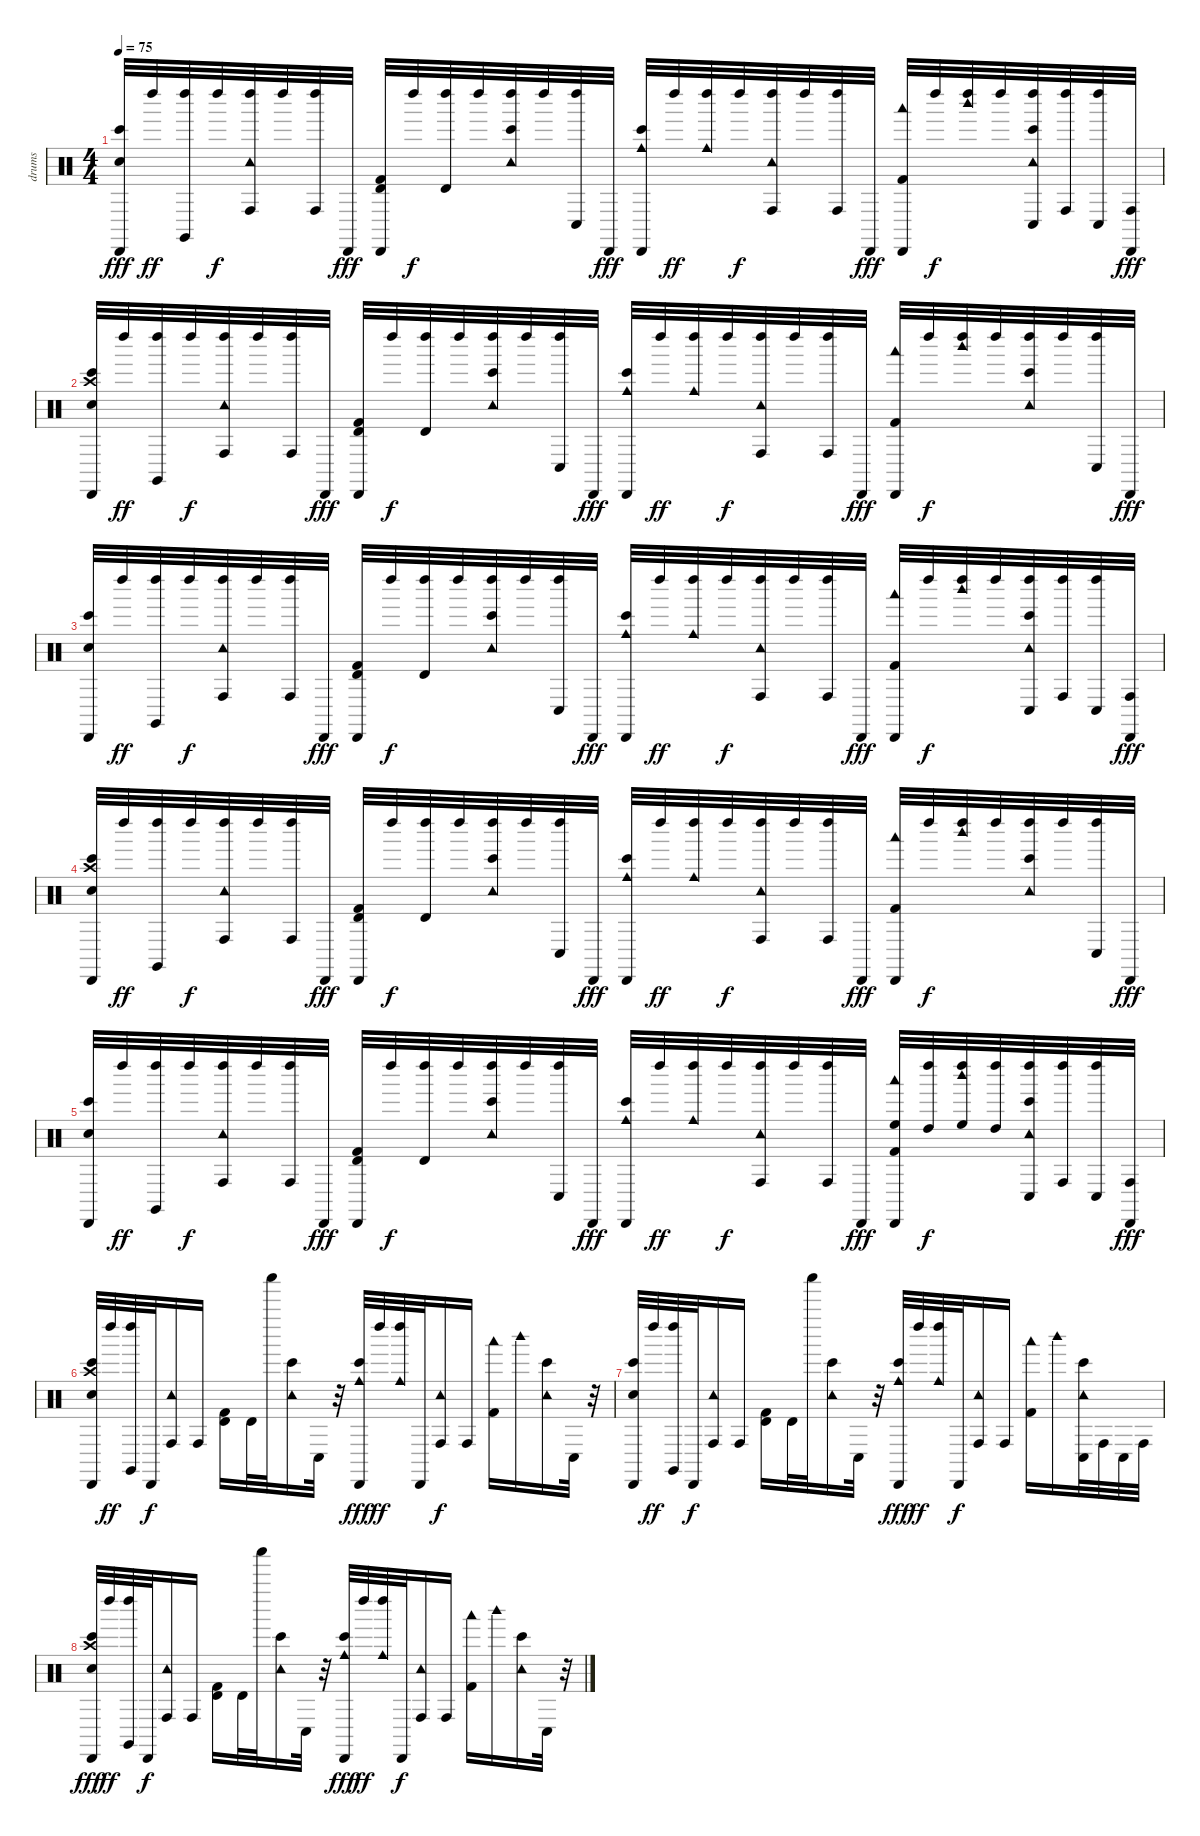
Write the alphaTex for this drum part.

\track ("drums" "drums") {instrument percussion}
\staff {score}
\articulation defaults
\ts (4 4)
\tempo 75
\clef neutral
\ks c
("Snare (hit) 2" "Bongo High (hit)" "Cabasa (hit)").32{dy fff} "Left Maraca (hit)".32{dy ff} ("Claves (hit)" "Left Maraca (hit)").32 "Left Maraca (hit)".32{dy f} ("Conga high (hit)" "Tambourine (hit)" "Left Maraca (hit)").32 "Left Maraca (hit)".32 ("Conga high (hit)" "Left Maraca (hit)").32 "Cabasa (hit)".32{dy fff} ("Timbale high (hit)" "Kick (hit) 2" "Cabasa (hit)").32 "Left Maraca (hit)".32{dy f} ("Timbale high (hit)" "Left Maraca (hit)").32 "Left Maraca (hit)".32 ("Bongo High (hit)" "Tambourine (hit)" "Left Maraca (hit)").32 "Left Maraca (hit)".32 ("Conga low (hit)" "Left Maraca (hit)").32 "Cabasa (hit)".32{dy fff} ("Bongo High (hit)" "Cowbell medium (hit)" "Cabasa (hit)").32 "Left Maraca (hit)".32{dy ff} ("Cowbell medium (hit)" "Left Maraca (hit)").32 "Left Maraca (hit)".32{dy f} ("Conga high (hit)" "Tambourine (hit)" "Left Maraca (hit)").32 "Left Maraca (hit)".32 ("Conga high (hit)" "Left Maraca (hit)").32 "Cabasa (hit)".32{dy fff} ("Woodblock low (hit)" "Kick (hit) 2" "Cabasa (hit)").32 "Left Maraca (hit)".32{dy f} ("Woodblock high (hit)" "Left Maraca (hit)").32 "Left Maraca (hit)".32 ("Bongo High (hit)" "Conga low (hit)" "Tambourine (hit)" "Left Maraca (hit)").32 ("Conga high (hit)" "Left Maraca (hit)").32 ("Conga low (hit)" "Left Maraca (hit)").32 ("Conga high (hit)" "Cabasa (hit)").32{dy fff} |
("Crash high (hit)" "Snare (hit) 2" "Bongo High (hit)" "Cabasa (hit)").32 "Left Maraca (hit)".32{dy ff} ("Claves (hit)" "Left Maraca (hit)").32 "Left Maraca (hit)".32{dy f} ("Conga high (hit)" "Tambourine (hit)" "Left Maraca (hit)").32 "Left Maraca (hit)".32 ("Conga high (hit)" "Left Maraca (hit)").32 "Cabasa (hit)".32{dy fff} ("Timbale high (hit)" "Kick (hit) 2" "Cabasa (hit)").32 "Left Maraca (hit)".32{dy f} ("Timbale high (hit)" "Left Maraca (hit)").32 "Left Maraca (hit)".32 ("Bongo High (hit)" "Tambourine (hit)" "Left Maraca (hit)").32 "Left Maraca (hit)".32 ("Conga low (hit)" "Left Maraca (hit)").32 "Cabasa (hit)".32{dy fff} ("Bongo High (hit)" "Cowbell medium (hit)" "Cabasa (hit)").32 "Left Maraca (hit)".32{dy ff} ("Cowbell medium (hit)" "Left Maraca (hit)").32 "Left Maraca (hit)".32{dy f} ("Conga high (hit)" "Tambourine (hit)" "Left Maraca (hit)").32 "Left Maraca (hit)".32 ("Conga high (hit)" "Left Maraca (hit)").32 "Cabasa (hit)".32{dy fff} ("Woodblock low (hit)" "Kick (hit) 2" "Cabasa (hit)").32 "Left Maraca (hit)".32{dy f} ("Woodblock high (hit)" "Left Maraca (hit)").32 "Left Maraca (hit)".32 ("Bongo High (hit)" "Tambourine (hit)" "Left Maraca (hit)").32 "Left Maraca (hit)".32 ("Conga low (hit)" "Left Maraca (hit)").32 "Cabasa (hit)".32{dy fff} |
("Snare (hit) 2" "Bongo High (hit)" "Cabasa (hit)").32 "Left Maraca (hit)".32{dy ff} ("Claves (hit)" "Left Maraca (hit)").32 "Left Maraca (hit)".32{dy f} ("Conga high (hit)" "Tambourine (hit)" "Left Maraca (hit)").32 "Left Maraca (hit)".32 ("Conga high (hit)" "Left Maraca (hit)").32 "Cabasa (hit)".32{dy fff} ("Timbale high (hit)" "Kick (hit) 2" "Cabasa (hit)").32 "Left Maraca (hit)".32{dy f} ("Timbale high (hit)" "Left Maraca (hit)").32 "Left Maraca (hit)".32 ("Bongo High (hit)" "Tambourine (hit)" "Left Maraca (hit)").32 "Left Maraca (hit)".32 ("Conga low (hit)" "Left Maraca (hit)").32 "Cabasa (hit)".32{dy fff} ("Bongo High (hit)" "Cowbell medium (hit)" "Cabasa (hit)").32 "Left Maraca (hit)".32{dy ff} ("Cowbell medium (hit)" "Left Maraca (hit)").32 "Left Maraca (hit)".32{dy f} ("Conga high (hit)" "Tambourine (hit)" "Left Maraca (hit)").32 "Left Maraca (hit)".32 ("Conga high (hit)" "Left Maraca (hit)").32 "Cabasa (hit)".32{dy fff} ("Woodblock low (hit)" "Kick (hit) 2" "Cabasa (hit)").32 "Left Maraca (hit)".32{dy f} ("Woodblock high (hit)" "Left Maraca (hit)").32 "Left Maraca (hit)".32 ("Bongo High (hit)" "Conga low (hit)" "Tambourine (hit)" "Left Maraca (hit)").32 ("Conga high (hit)" "Left Maraca (hit)").32 ("Conga low (hit)" "Left Maraca (hit)").32 ("Conga high (hit)" "Cabasa (hit)").32{dy fff} |
("Crash high (hit)" "Snare (hit) 2" "Bongo High (hit)" "Cabasa (hit)").32 "Left Maraca (hit)".32{dy ff} ("Claves (hit)" "Left Maraca (hit)").32 "Left Maraca (hit)".32{dy f} ("Conga high (hit)" "Tambourine (hit)" "Left Maraca (hit)").32 "Left Maraca (hit)".32 ("Conga high (hit)" "Left Maraca (hit)").32 "Cabasa (hit)".32{dy fff} ("Timbale high (hit)" "Kick (hit) 2" "Cabasa (hit)").32 "Left Maraca (hit)".32{dy f} ("Timbale high (hit)" "Left Maraca (hit)").32 "Left Maraca (hit)".32 ("Bongo High (hit)" "Tambourine (hit)" "Left Maraca (hit)").32 "Left Maraca (hit)".32 ("Conga low (hit)" "Left Maraca (hit)").32 "Cabasa (hit)".32{dy fff} ("Bongo High (hit)" "Cowbell medium (hit)" "Cabasa (hit)").32 "Left Maraca (hit)".32{dy ff} ("Cowbell medium (hit)" "Left Maraca (hit)").32 "Left Maraca (hit)".32{dy f} ("Conga high (hit)" "Tambourine (hit)" "Left Maraca (hit)").32 "Left Maraca (hit)".32 ("Conga high (hit)" "Left Maraca (hit)").32 "Cabasa (hit)".32{dy fff} ("Woodblock low (hit)" "Kick (hit) 2" "Cabasa (hit)").32 "Left Maraca (hit)".32{dy f} ("Woodblock high (hit)" "Left Maraca (hit)").32 "Left Maraca (hit)".32 ("Bongo High (hit)" "Tambourine (hit)" "Left Maraca (hit)").32 "Left Maraca (hit)".32 ("Conga low (hit)" "Left Maraca (hit)").32 "Cabasa (hit)".32{dy fff} |
("Snare (hit) 2" "Bongo High (hit)" "Cabasa (hit)").32 "Left Maraca (hit)".32{dy ff} ("Claves (hit)" "Left Maraca (hit)").32 "Left Maraca (hit)".32{dy f} ("Conga high (hit)" "Tambourine (hit)" "Left Maraca (hit)").32 "Left Maraca (hit)".32 ("Conga high (hit)" "Left Maraca (hit)").32 "Cabasa (hit)".32{dy fff} ("Timbale high (hit)" "Kick (hit) 2" "Cabasa (hit)").32 "Left Maraca (hit)".32{dy f} ("Timbale high (hit)" "Left Maraca (hit)").32 "Left Maraca (hit)".32 ("Bongo High (hit)" "Tambourine (hit)" "Left Maraca (hit)").32 "Left Maraca (hit)".32 ("Conga low (hit)" "Left Maraca (hit)").32 "Cabasa (hit)".32{dy fff} ("Bongo High (hit)" "Cowbell medium (hit)" "Cabasa (hit)").32 "Left Maraca (hit)".32{dy ff} ("Cowbell medium (hit)" "Left Maraca (hit)").32 "Left Maraca (hit)".32{dy f} ("Conga high (hit)" "Tambourine (hit)" "Left Maraca (hit)").32 "Left Maraca (hit)".32 ("Conga high (hit)" "Left Maraca (hit)").32 "Cabasa (hit)".32{dy fff} ("Woodblock low (hit)" "High Floor Tom (hit)" "Kick (hit) 2" "Cabasa (hit)").32 ("High Tom (hit)" "Left Maraca (hit)").32{dy f} ("Woodblock high (hit)" "High Floor Tom (hit)" "Left Maraca (hit)").32 ("High Tom (hit)" "Left Maraca (hit)").32 ("Conga low (hit)" "Bongo High (hit)" "Tambourine (hit)" "Left Maraca (hit)").32 ("Conga high (hit)" "Left Maraca (hit)").32 ("Conga low (hit)" "Left Maraca (hit)").32 ("Conga high (hit)" "Cabasa (hit)").32{dy fff} |
("Snare (hit) 2" "Crash high (hit)" "Bongo High (hit)" "Cabasa (hit)").32 "Left Maraca (hit)".32{dy ff} ("Claves (hit)" "Left Maraca (hit)").32 "Cabasa (hit)".32{dy f} ("Conga high (hit)" "Tambourine (hit)").16 "Conga high (hit)".16 ("Timbale high (hit)" "Kick (hit) 2").16 "Timbale high (hit)".32 "Shaker (hit)".32 ("Bongo High (hit)" "Tambourine (hit)").16 "Conga low (hit)".32 r.32 ("Bongo High (hit)" "Cowbell medium (hit)" "Cabasa (hit)").32{dy fff} "Left Maraca (hit)".32{dy ff} ("Cowbell medium (hit)" "Left Maraca (hit)").32 "Cabasa (hit)".32 ("Conga high (hit)" "Tambourine (hit)").16{dy f} "Conga high (hit)".16 ("Woodblock low (hit)" "Kick (hit) 2").16 "Woodblock high (hit)".16 ("Bongo High (hit)" "Tambourine (hit)").16 "Conga low (hit)".32 r.32 |
("Snare (hit) 2" "Bongo High (hit)" "Cabasa (hit)").32 "Left Maraca (hit)".32{dy ff} ("Claves (hit)" "Left Maraca (hit)").32 "Cabasa (hit)".32{dy f} ("Conga high (hit)" "Tambourine (hit)").16 "Conga high (hit)".16 ("Timbale high (hit)" "Kick (hit) 2").16 "Timbale high (hit)".32 "Shaker (hit)".32 ("Bongo High (hit)" "Tambourine (hit)").16 "Conga low (hit)".32 r.32 ("Bongo High (hit)" "Cowbell medium (hit)" "Cabasa (hit)").32{dy fff} "Left Maraca (hit)".32{dy ff} ("Cowbell medium (hit)" "Left Maraca (hit)").32 "Cabasa (hit)".32{dy f} ("Conga high (hit)" "Tambourine (hit)").16 "Conga high (hit)".16 ("Woodblock low (hit)" "Kick (hit) 2").16 "Woodblock high (hit)".16 ("Bongo High (hit)" "Conga low (hit)" "Tambourine (hit)").32 "Conga high (hit)".32 "Conga low (hit)".32 "Conga high (hit)".32 |
("Crash high (hit)" "Snare (hit) 2" "Bongo High (hit)" "Cabasa (hit)").32{dy fff} "Left Maraca (hit)".32{dy ff} ("Claves (hit)" "Left Maraca (hit)").32 "Cabasa (hit)".32{dy f} ("Conga high (hit)" "Tambourine (hit)").16 "Conga high (hit)".16 ("Timbale high (hit)" "Kick (hit) 2").16 "Timbale high (hit)".32 "Shaker (hit)".32 ("Bongo High (hit)" "Tambourine (hit)").16 "Conga low (hit)".32 r.32 ("Bongo High (hit)" "Cowbell medium (hit)" "Cabasa (hit)").32{dy fff} "Left Maraca (hit)".32{dy ff} ("Cowbell medium (hit)" "Left Maraca (hit)").32 "Cabasa (hit)".32{dy f} ("Conga high (hit)" "Tambourine (hit)").16 "Conga high (hit)".16 ("Woodblock low (hit)" "Kick (hit) 2").16 "Woodblock high (hit)".16 ("Bongo High (hit)" "Tambourine (hit)").16 "Conga low (hit)".32 r.32
